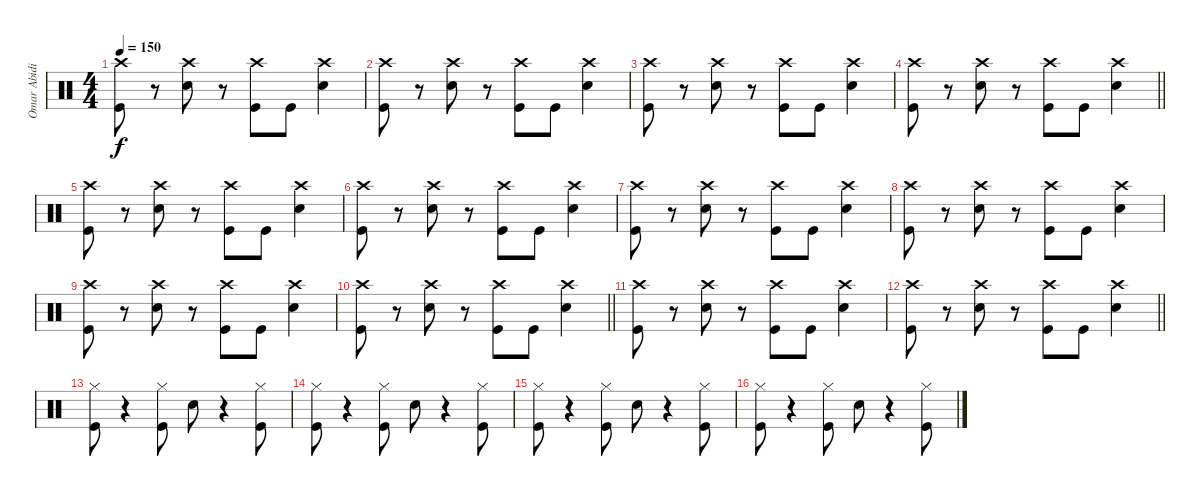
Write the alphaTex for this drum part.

\track ("Omar Abidi" "Omar Abidi") {instrument percussion}
\staff {score}
\articulation defaults
\ts (4 4)
\tempo 150
\clef neutral
\ks c
("Crash high (hit)" "Kick (hit)").8{dy f} r.8 ("Crash high (hit)" "Snare (hit) 2").8 r.8 ("Crash high (hit)" "Kick (hit)").8 "Kick (hit)".8 ("Crash high (hit)" "Snare (hit) 2").4 |
("Crash high (hit)" "Kick (hit)").8 r.8 ("Crash high (hit)" "Snare (hit) 2").8 r.8 ("Crash high (hit)" "Kick (hit)").8 "Kick (hit)".8 ("Crash high (hit)" "Snare (hit) 2").4 |
("Crash high (hit)" "Kick (hit)").8 r.8 ("Crash high (hit)" "Snare (hit) 2").8 r.8 ("Crash high (hit)" "Kick (hit)").8 "Kick (hit)".8 ("Crash high (hit)" "Snare (hit) 2").4 |
\barLineRight lightlight
("Crash high (hit)" "Kick (hit)").8 r.8 ("Crash high (hit)" "Snare (hit) 2").8 r.8 ("Crash high (hit)" "Kick (hit)").8 "Kick (hit)".8 ("Crash high (hit)" "Snare (hit) 2").4 |
("Crash high (hit)" "Kick (hit)").8 r.8 ("Crash high (hit)" "Snare (hit) 2").8 r.8 ("Crash high (hit)" "Kick (hit)").8 "Kick (hit)".8 ("Crash high (hit)" "Snare (hit) 2").4 |
("Crash high (hit)" "Kick (hit)").8 r.8 ("Crash high (hit)" "Snare (hit) 2").8 r.8 ("Crash high (hit)" "Kick (hit)").8 "Kick (hit)".8 ("Crash high (hit)" "Snare (hit) 2").4 |
("Crash high (hit)" "Kick (hit)").8 r.8 ("Crash high (hit)" "Snare (hit) 2").8 r.8 ("Crash high (hit)" "Kick (hit)").8 "Kick (hit)".8 ("Crash high (hit)" "Snare (hit) 2").4 |
("Crash high (hit)" "Kick (hit)").8 r.8 ("Crash high (hit)" "Snare (hit) 2").8 r.8 ("Crash high (hit)" "Kick (hit)").8 "Kick (hit)".8 ("Crash high (hit)" "Snare (hit) 2").4 |
("Crash high (hit)" "Kick (hit)").8 r.8 ("Crash high (hit)" "Snare (hit) 2").8 r.8 ("Crash high (hit)" "Kick (hit)").8 "Kick (hit)".8 ("Crash high (hit)" "Snare (hit) 2").4 |
\barLineRight lightlight
("Crash high (hit)" "Kick (hit)").8 r.8 ("Crash high (hit)" "Snare (hit) 2").8 r.8 ("Crash high (hit)" "Kick (hit)").8 "Kick (hit)".8 ("Crash high (hit)" "Snare (hit) 2").4 |
("Crash high (hit)" "Kick (hit)").8 r.8 ("Crash high (hit)" "Snare (hit) 2").8 r.8 ("Crash high (hit)" "Kick (hit)").8 "Kick (hit)".8 ("Crash high (hit)" "Snare (hit) 2").4 |
\barLineRight lightlight
("Crash high (hit)" "Kick (hit)").8 r.8 ("Crash high (hit)" "Snare (hit) 2").8 r.8 ("Crash high (hit)" "Kick (hit)").8 "Kick (hit)".8 ("Crash high (hit)" "Snare (hit) 2").4 |
("Hi-Hat (closed)" "Kick (hit)").8 r.4 ("Hi-Hat (closed)" "Kick (hit)").8 "Snare (hit) 2".8 r.4 ("Hi-Hat (closed)" "Kick (hit)").8 |
("Hi-Hat (closed)" "Kick (hit)").8 r.4 ("Hi-Hat (closed)" "Kick (hit)").8 "Snare (hit) 2".8 r.4 ("Hi-Hat (closed)" "Kick (hit)").8 |
("Hi-Hat (closed)" "Kick (hit)").8 r.4 ("Hi-Hat (closed)" "Kick (hit)").8 "Snare (hit) 2".8 r.4 ("Hi-Hat (closed)" "Kick (hit)").8 |
("Hi-Hat (closed)" "Kick (hit)").8 r.4 ("Hi-Hat (closed)" "Kick (hit)").8 "Snare (hit) 2".8 r.4 ("Hi-Hat (closed)" "Kick (hit)").8
